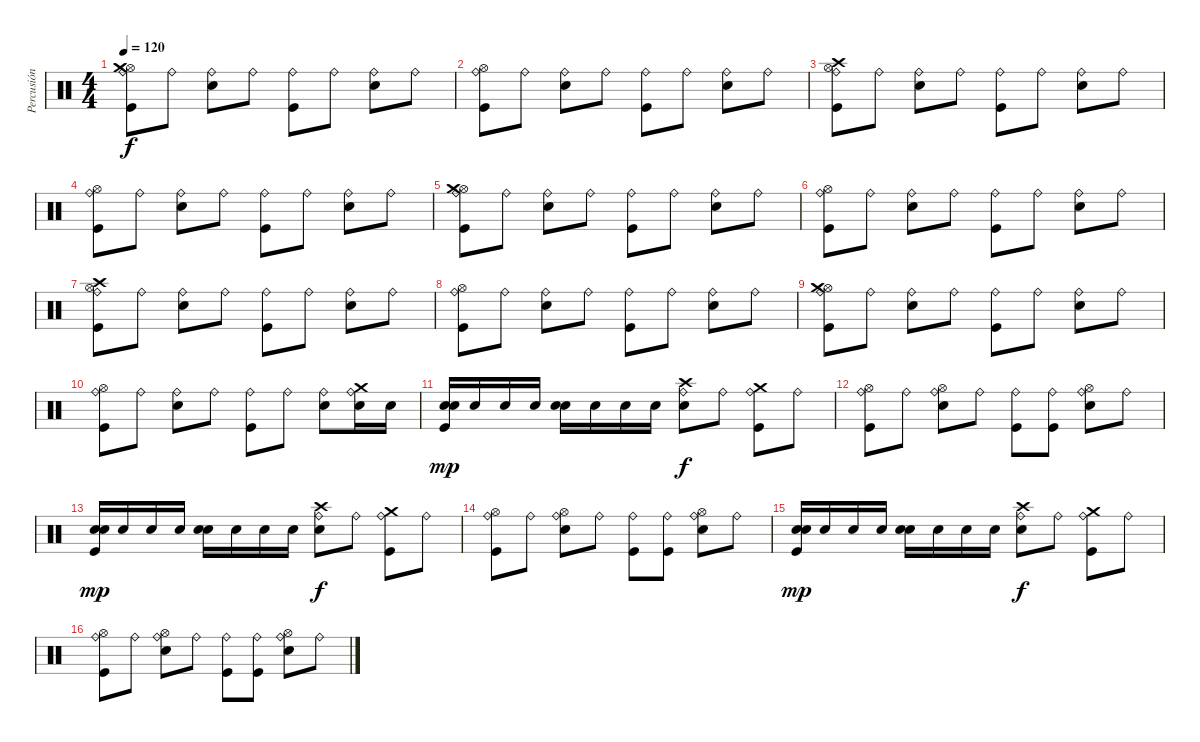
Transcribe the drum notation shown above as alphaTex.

\track ("Percusión" "Percusión") {instrument percussion}
\staff {score}
\articulation defaults
\ts (4 4)
\tempo 120
\clef neutral
\ks c
("Ride (bell)" "Hi-Hat (open)" "Crash medium (hit)" "Kick (hit)").8{dy f} "Ride (bell)".8 ("Ride (bell)" "Snare (hit) 2").8 "Ride (bell)".8 ("Ride (bell)" "Kick (hit)").8 "Ride (bell)".8 ("Ride (bell)" "Snare (hit) 2").8 "Ride (bell)".8 |
("Ride (bell)" "Hi-Hat (open)" "Kick (hit)").8 "Ride (bell)".8 ("Ride (bell)" "Snare (hit) 2").8 "Ride (bell)".8 ("Ride (bell)" "Kick (hit)").8 "Ride (bell)".8 ("Ride (bell)" "Snare (hit) 2").8 "Ride (bell)".8 |
("Ride (bell)" "Hi-Hat (open)" "Crash high (hit)" "Kick (hit)").8 "Ride (bell)".8 ("Ride (bell)" "Snare (hit) 2").8 "Ride (bell)".8 ("Ride (bell)" "Kick (hit)").8 "Ride (bell)".8 ("Ride (bell)" "Snare (hit) 2").8 "Ride (bell)".8 |
("Ride (bell)" "Hi-Hat (open)" "Kick (hit)").8 "Ride (bell)".8 ("Ride (bell)" "Snare (hit) 2").8 "Ride (bell)".8 ("Ride (bell)" "Kick (hit)").8 "Ride (bell)".8 ("Ride (bell)" "Snare (hit) 2").8 "Ride (bell)".8 |
("Ride (bell)" "Hi-Hat (open)" "Crash medium (hit)" "Kick (hit)").8 "Ride (bell)".8 ("Ride (bell)" "Snare (hit) 2").8 "Ride (bell)".8 ("Ride (bell)" "Kick (hit)").8 "Ride (bell)".8 ("Ride (bell)" "Snare (hit) 2").8 "Ride (bell)".8 |
("Ride (bell)" "Hi-Hat (open)" "Kick (hit)").8 "Ride (bell)".8 ("Ride (bell)" "Snare (hit) 2").8 "Ride (bell)".8 ("Ride (bell)" "Kick (hit)").8 "Ride (bell)".8 ("Ride (bell)" "Snare (hit) 2").8 "Ride (bell)".8 |
("Ride (bell)" "Hi-Hat (open)" "Crash high (hit)" "Kick (hit)").8 "Ride (bell)".8 ("Ride (bell)" "Snare (hit) 2").8 "Ride (bell)".8 ("Ride (bell)" "Kick (hit)").8 "Ride (bell)".8 ("Ride (bell)" "Snare (hit) 2").8 "Ride (bell)".8 |
("Ride (bell)" "Hi-Hat (open)" "Kick (hit)").8 "Ride (bell)".8 ("Ride (bell)" "Snare (hit) 2").8 "Ride (bell)".8 ("Ride (bell)" "Kick (hit)").8 "Ride (bell)".8 ("Ride (bell)" "Snare (hit) 2").8 "Ride (bell)".8 |
("Ride (bell)" "Hi-Hat (open)" "Crash medium (hit)" "Kick (hit)").8 "Ride (bell)".8 ("Ride (bell)" "Snare (hit) 2").8 "Ride (bell)".8 ("Ride (bell)" "Kick (hit)").8 "Ride (bell)".8 ("Ride (bell)" "Snare (hit) 2").8 "Ride (bell)".8 |
("Ride (bell)" "Hi-Hat (open)" "Kick (hit)").8 "Ride (bell)".8 ("Ride (bell)" "Snare (hit) 2").8 "Ride (bell)".8 ("Ride (bell)" "Kick (hit)").8 "Ride (bell)".8 ("Ride (bell)" "Snare (hit) 2").8 ("Ride (bell)" "Crash medium (hit)" "Snare (hit) 2").16 "Snare (hit) 2".16 |
("Snare (hit) 2" "Electric Snare (hit)" "Kick (hit)").16{dy mp} "Snare (hit) 2".16 "Snare (hit) 2".16 "Snare (hit) 2".16 ("Snare (hit) 2" "Electric Snare (hit)").16 "Snare (hit) 2".16 "Snare (hit) 2".16 "Snare (hit) 2".16 ("Ride (bell)" "Snare (hit) 2" "Crash high (hit)").8{dy f} "Ride (bell)".8 ("Ride (bell)" "Crash medium (hit)" "Kick (hit)").8 "Ride (bell)".8 |
("Ride (bell)" "Hi-Hat (open)" "Kick (hit)").8 "Ride (bell)".8 ("Ride (bell)" "Hi-Hat (open)" "Snare (hit) 2").8 "Ride (bell)".8 ("Ride (bell)" "Kick (hit)").8 ("Ride (bell)" "Kick (hit)").8 ("Ride (bell)" "Hi-Hat (open)" "Snare (hit) 2").8 "Ride (bell)".8 |
("Snare (hit) 2" "Electric Snare (hit)" "Kick (hit)").16{dy mp} "Snare (hit) 2".16 "Snare (hit) 2".16 "Snare (hit) 2".16 ("Snare (hit) 2" "Electric Snare (hit)").16 "Snare (hit) 2".16 "Snare (hit) 2".16 "Snare (hit) 2".16 ("Ride (bell)" "Snare (hit) 2" "Crash high (hit)").8{dy f} "Ride (bell)".8 ("Ride (bell)" "Crash medium (hit)" "Kick (hit)").8 "Ride (bell)".8 |
("Ride (bell)" "Hi-Hat (open)" "Kick (hit)").8 "Ride (bell)".8 ("Ride (bell)" "Hi-Hat (open)" "Snare (hit) 2").8 "Ride (bell)".8 ("Ride (bell)" "Kick (hit)").8 ("Ride (bell)" "Kick (hit)").8 ("Ride (bell)" "Hi-Hat (open)" "Snare (hit) 2").8 "Ride (bell)".8 |
("Snare (hit) 2" "Electric Snare (hit)" "Kick (hit)").16{dy mp} "Snare (hit) 2".16 "Snare (hit) 2".16 "Snare (hit) 2".16 ("Snare (hit) 2" "Electric Snare (hit)").16 "Snare (hit) 2".16 "Snare (hit) 2".16 "Snare (hit) 2".16 ("Ride (bell)" "Snare (hit) 2" "Crash high (hit)").8{dy f} "Ride (bell)".8 ("Ride (bell)" "Crash medium (hit)" "Kick (hit)").8 "Ride (bell)".8 |
("Ride (bell)" "Hi-Hat (open)" "Kick (hit)").8 "Ride (bell)".8 ("Ride (bell)" "Hi-Hat (open)" "Snare (hit) 2").8 "Ride (bell)".8 ("Ride (bell)" "Kick (hit)").8 ("Ride (bell)" "Kick (hit)").8 ("Ride (bell)" "Hi-Hat (open)" "Snare (hit) 2").8 "Ride (bell)".8
